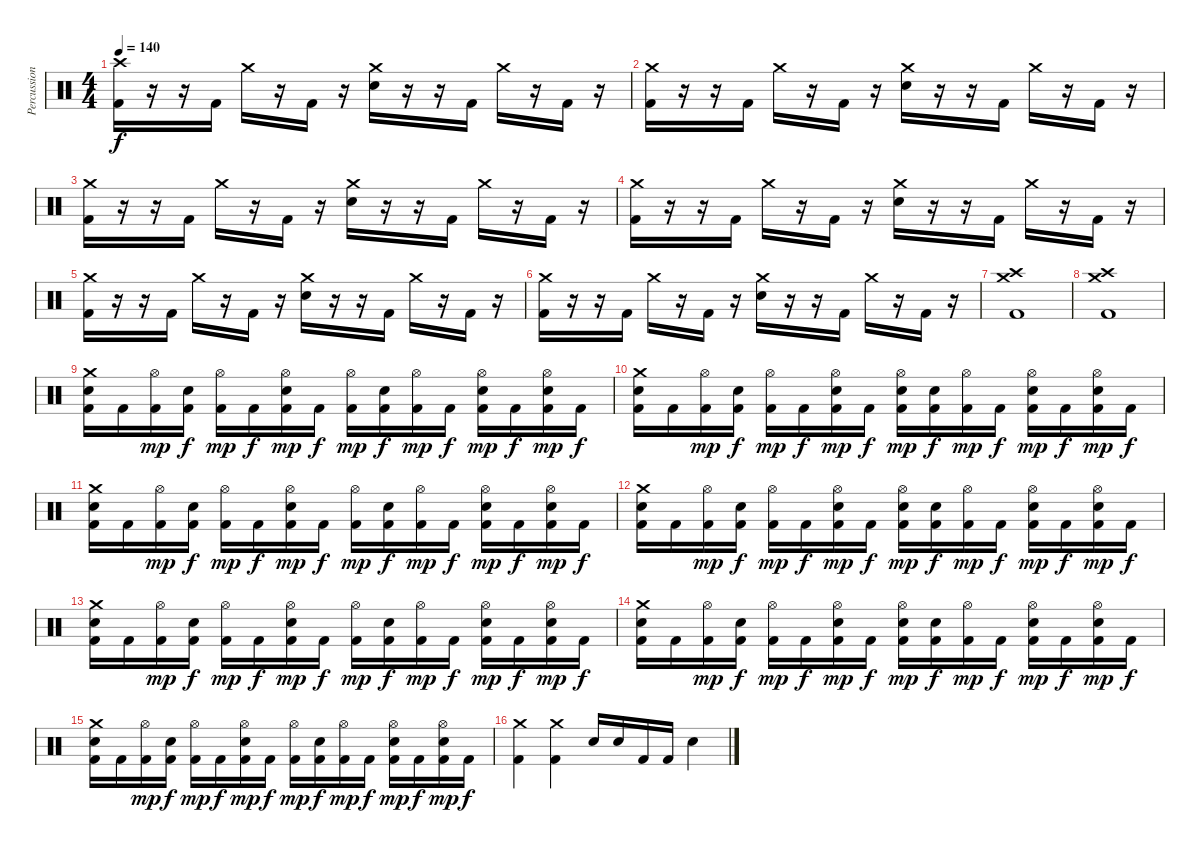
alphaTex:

\track ("Percussions" "Percussion") {instrument percussion}
\staff {score}
\articulation defaults
\ts (4 4)
\tempo 140
\clef neutral
\ks c
("Kick (hit) 2" "Crash high (hit)").16{dy f} r.16 r.16 "Kick (hit) 2".16 "Crash medium (hit)".16 r.16 "Kick (hit) 2".16 r.16 ("Electric Snare (hit)" "Crash medium (hit)").16 r.16 r.16 "Kick (hit) 2".16 "Crash medium (hit)".16 r.16 "Kick (hit) 2".16 r.16 |
("Kick (hit) 2" "Crash medium (hit)").16 r.16 r.16 "Kick (hit) 2".16 "Crash medium (hit)".16 r.16 "Kick (hit) 2".16 r.16 ("Electric Snare (hit)" "Crash medium (hit)").16 r.16 r.16 "Kick (hit) 2".16 "Crash medium (hit)".16 r.16 "Kick (hit) 2".16 r.16 |
("Kick (hit) 2" "Crash medium (hit)").16 r.16 r.16 "Kick (hit) 2".16 "Crash medium (hit)".16 r.16 "Kick (hit) 2".16 r.16 ("Electric Snare (hit)" "Crash medium (hit)").16 r.16 r.16 "Kick (hit) 2".16 "Crash medium (hit)".16 r.16 "Kick (hit) 2".16 r.16 |
("Kick (hit) 2" "Crash medium (hit)").16 r.16 r.16 "Kick (hit) 2".16 "Crash medium (hit)".16 r.16 "Kick (hit) 2".16 r.16 ("Electric Snare (hit)" "Crash medium (hit)").16 r.16 r.16 "Kick (hit) 2".16 "Crash medium (hit)".16 r.16 "Kick (hit) 2".16 r.16 |
("Kick (hit) 2" "Crash medium (hit)").16 r.16 r.16 "Kick (hit) 2".16 "Crash medium (hit)".16 r.16 "Kick (hit) 2".16 r.16 ("Electric Snare (hit)" "Crash medium (hit)").16 r.16 r.16 "Kick (hit) 2".16 "Crash medium (hit)".16 r.16 "Kick (hit) 2".16 r.16 |
("Kick (hit) 2" "Crash medium (hit)").16 r.16 r.16 "Kick (hit) 2".16 "Crash medium (hit)".16 r.16 "Kick (hit) 2".16 r.16 ("Electric Snare (hit)" "Crash medium (hit)").16 r.16 r.16 "Kick (hit) 2".16 "Crash medium (hit)".16 r.16 "Kick (hit) 2".16 r.16 |
("Kick (hit) 2" "Crash high (hit)" "Crash medium (hit)").1 |
("Kick (hit) 2" "Crash high (hit)" "Crash medium (hit)").1 |
("Kick (hit) 2" "Electric Snare (hit)" "Crash medium (hit)").16 "Kick (hit) 2".16 ("Kick (hit) 2" "Hi-Hat (open)").16{dy mp} ("Kick (hit) 2" "Electric Snare (hit)").16{dy f} ("Kick (hit) 2" "Hi-Hat (open)").16{dy mp} "Kick (hit) 2".16{dy f} ("Kick (hit) 2" "Electric Snare (hit)" "Hi-Hat (open)").16{dy mp} "Kick (hit) 2".16{dy f} ("Kick (hit) 2" "Hi-Hat (open)").16{dy mp} ("Kick (hit) 2" "Electric Snare (hit)").16{dy f} ("Kick (hit) 2" "Hi-Hat (open)").16{dy mp} "Kick (hit) 2".16{dy f} ("Kick (hit) 2" "Electric Snare (hit)" "Hi-Hat (open)").16{dy mp} "Kick (hit) 2".16{dy f} ("Kick (hit) 2" "Electric Snare (hit)" "Hi-Hat (open)").16{dy mp} "Kick (hit) 2".16{dy f} |
("Kick (hit) 2" "Electric Snare (hit)" "Crash medium (hit)").16 "Kick (hit) 2".16 ("Kick (hit) 2" "Hi-Hat (open)").16{dy mp} ("Kick (hit) 2" "Electric Snare (hit)").16{dy f} ("Kick (hit) 2" "Hi-Hat (open)").16{dy mp} "Kick (hit) 2".16{dy f} ("Kick (hit) 2" "Electric Snare (hit)" "Hi-Hat (open)").16{dy mp} "Kick (hit) 2".16{dy f} ("Kick (hit) 2" "Electric Snare (hit)" "Hi-Hat (open)").16{dy mp} ("Kick (hit) 2" "Electric Snare (hit)").16{dy f} ("Kick (hit) 2" "Hi-Hat (open)").16{dy mp} "Kick (hit) 2".16{dy f} ("Kick (hit) 2" "Electric Snare (hit)" "Hi-Hat (open)").16{dy mp} "Kick (hit) 2".16{dy f} ("Kick (hit) 2" "Electric Snare (hit)" "Hi-Hat (open)").16{dy mp} "Kick (hit) 2".16{dy f} |
("Kick (hit) 2" "Electric Snare (hit)" "Crash medium (hit)").16 "Kick (hit) 2".16 ("Kick (hit) 2" "Hi-Hat (open)").16{dy mp} ("Kick (hit) 2" "Electric Snare (hit)").16{dy f} ("Kick (hit) 2" "Hi-Hat (open)").16{dy mp} "Kick (hit) 2".16{dy f} ("Kick (hit) 2" "Electric Snare (hit)" "Hi-Hat (open)").16{dy mp} "Kick (hit) 2".16{dy f} ("Kick (hit) 2" "Hi-Hat (open)").16{dy mp} ("Kick (hit) 2" "Electric Snare (hit)").16{dy f} ("Kick (hit) 2" "Hi-Hat (open)").16{dy mp} "Kick (hit) 2".16{dy f} ("Kick (hit) 2" "Electric Snare (hit)" "Hi-Hat (open)").16{dy mp} "Kick (hit) 2".16{dy f} ("Kick (hit) 2" "Electric Snare (hit)" "Hi-Hat (open)").16{dy mp} "Kick (hit) 2".16{dy f} |
("Kick (hit) 2" "Electric Snare (hit)" "Crash medium (hit)").16 "Kick (hit) 2".16 ("Kick (hit) 2" "Hi-Hat (open)").16{dy mp} ("Kick (hit) 2" "Electric Snare (hit)").16{dy f} ("Kick (hit) 2" "Hi-Hat (open)").16{dy mp} "Kick (hit) 2".16{dy f} ("Kick (hit) 2" "Electric Snare (hit)" "Hi-Hat (open)").16{dy mp} "Kick (hit) 2".16{dy f} ("Kick (hit) 2" "Electric Snare (hit)" "Hi-Hat (open)").16{dy mp} ("Kick (hit) 2" "Electric Snare (hit)").16{dy f} ("Kick (hit) 2" "Hi-Hat (open)").16{dy mp} "Kick (hit) 2".16{dy f} ("Kick (hit) 2" "Electric Snare (hit)" "Hi-Hat (open)").16{dy mp} "Kick (hit) 2".16{dy f} ("Kick (hit) 2" "Electric Snare (hit)" "Hi-Hat (open)").16{dy mp} "Kick (hit) 2".16{dy f} |
("Kick (hit) 2" "Electric Snare (hit)" "Crash medium (hit)").16 "Kick (hit) 2".16 ("Kick (hit) 2" "Hi-Hat (open)").16{dy mp} ("Kick (hit) 2" "Electric Snare (hit)").16{dy f} ("Kick (hit) 2" "Hi-Hat (open)").16{dy mp} "Kick (hit) 2".16{dy f} ("Kick (hit) 2" "Electric Snare (hit)" "Hi-Hat (open)").16{dy mp} "Kick (hit) 2".16{dy f} ("Kick (hit) 2" "Hi-Hat (open)").16{dy mp} ("Kick (hit) 2" "Electric Snare (hit)").16{dy f} ("Kick (hit) 2" "Hi-Hat (open)").16{dy mp} "Kick (hit) 2".16{dy f} ("Kick (hit) 2" "Electric Snare (hit)" "Hi-Hat (open)").16{dy mp} "Kick (hit) 2".16{dy f} ("Kick (hit) 2" "Electric Snare (hit)" "Hi-Hat (open)").16{dy mp} "Kick (hit) 2".16{dy f} |
("Kick (hit) 2" "Electric Snare (hit)" "Crash medium (hit)").16 "Kick (hit) 2".16 ("Kick (hit) 2" "Hi-Hat (open)").16{dy mp} ("Kick (hit) 2" "Electric Snare (hit)").16{dy f} ("Kick (hit) 2" "Hi-Hat (open)").16{dy mp} "Kick (hit) 2".16{dy f} ("Kick (hit) 2" "Electric Snare (hit)" "Hi-Hat (open)").16{dy mp} "Kick (hit) 2".16{dy f} ("Kick (hit) 2" "Electric Snare (hit)" "Hi-Hat (open)").16{dy mp} ("Kick (hit) 2" "Electric Snare (hit)").16{dy f} ("Kick (hit) 2" "Hi-Hat (open)").16{dy mp} "Kick (hit) 2".16{dy f} ("Kick (hit) 2" "Electric Snare (hit)" "Hi-Hat (open)").16{dy mp} "Kick (hit) 2".16{dy f} ("Kick (hit) 2" "Electric Snare (hit)" "Hi-Hat (open)").16{dy mp} "Kick (hit) 2".16{dy f} |
("Kick (hit) 2" "Electric Snare (hit)" "Crash medium (hit)").16 "Kick (hit) 2".16 ("Kick (hit) 2" "Hi-Hat (open)").16{dy mp} ("Kick (hit) 2" "Electric Snare (hit)").16{dy f} ("Kick (hit) 2" "Hi-Hat (open)").16{dy mp} "Kick (hit) 2".16{dy f} ("Kick (hit) 2" "Electric Snare (hit)" "Hi-Hat (open)").16{dy mp} "Kick (hit) 2".16{dy f} ("Kick (hit) 2" "Hi-Hat (open)").16{dy mp} ("Kick (hit) 2" "Electric Snare (hit)").16{dy f} ("Kick (hit) 2" "Hi-Hat (open)").16{dy mp} "Kick (hit) 2".16{dy f} ("Kick (hit) 2" "Electric Snare (hit)" "Hi-Hat (open)").16{dy mp} "Kick (hit) 2".16{dy f} ("Kick (hit) 2" "Electric Snare (hit)" "Hi-Hat (open)").16{dy mp} "Kick (hit) 2".16{dy f} |
("Kick (hit) 2" "Crash medium (hit)").4 ("Kick (hit) 2" "Crash medium (hit)").4 "Electric Snare (hit)".16 "Electric Snare (hit)".16 "Kick (hit) 2".16 "Kick (hit) 2".16 "Electric Snare (hit)".4
